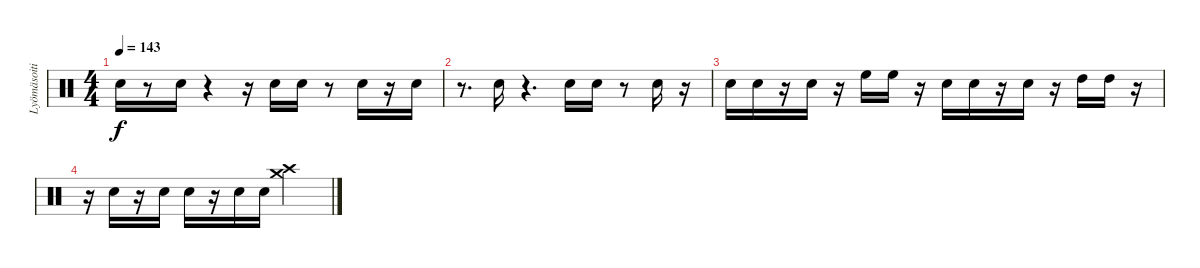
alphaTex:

\track ("Lyömäsoitin" "Lyömäsoiti") {instrument percussion}
\staff {score}
\articulation defaults
\ts (4 4)
\tempo 143
\clef neutral
\ks c "Snare (hit) 2".16{dy f}
r.8 "Snare (hit) 2".16 r.4 r.16 "Snare (hit) 2".16 "Snare (hit) 2".16 r.8 "Snare (hit) 2".16 r.16 "Snare (hit) 2".16 |
r.8{d} "Snare (hit) 2".16 r.4{d} "Snare (hit) 2".16 "Snare (hit) 2".16 r.8 "Snare (hit) 2".16 r.16 |
"Snare (hit) 2".16 "Snare (hit) 2".16 r.16 "Snare (hit) 2".16 r.16 "High Floor Tom (hit)".16 "High Floor Tom (hit)".16 r.16 "Snare (hit) 2".16 "Snare (hit) 2".16 r.16 "Snare (hit) 2".16 r.16 "High Tom (hit)".16 "High Tom (hit)".16 r.16 |
r.16 "Snare (hit) 2".16 r.16 "Snare (hit) 2".16 "Snare (hit) 2".16 r.16 "Snare (hit) 2".16 "Snare (hit) 2".16 ("Crash medium (hit)" "Crash high (hit)").2
